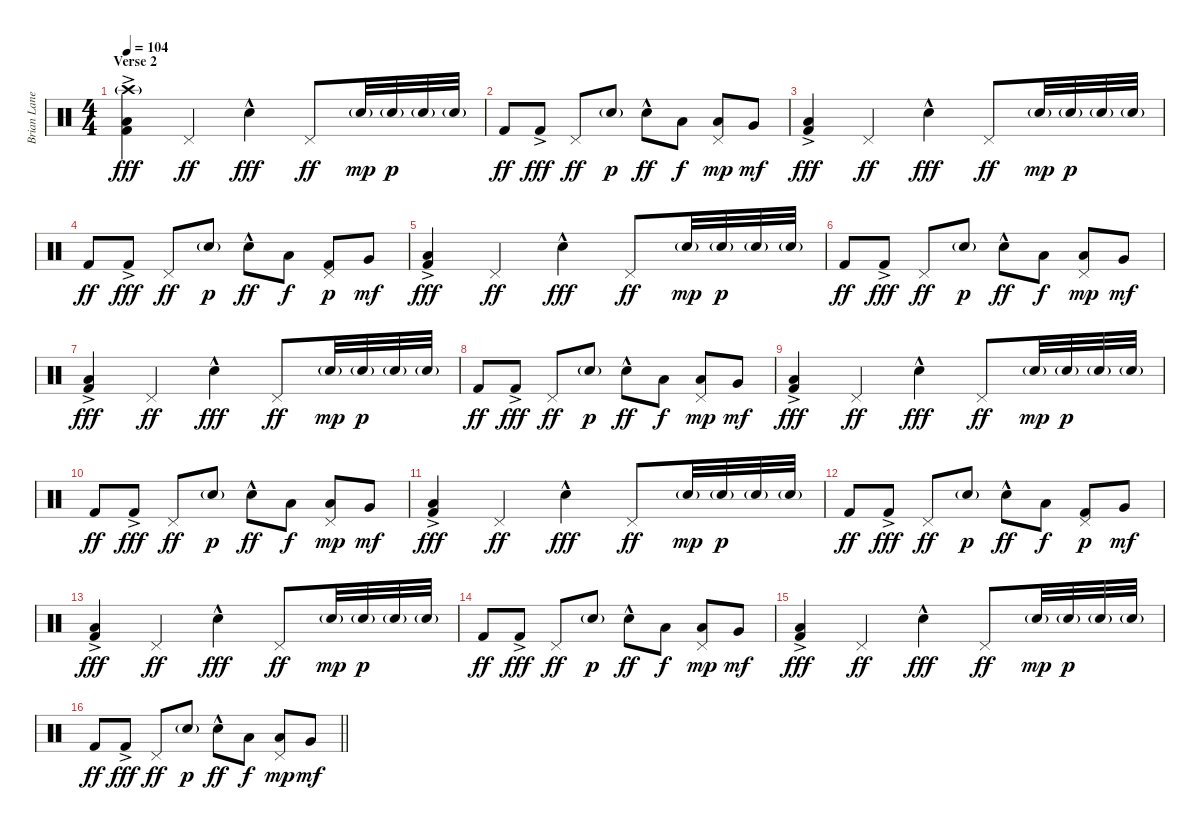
\track ("Brian Lane - Drums" "Brian Lane") {instrument percussion}
\staff {score}
\articulation defaults
\ts (4 4)
\section ("" "Verse 2")
\tempo 104
\clef neutral
\ks c
("Crash high (hit)"{g} "Low Floor Tom (hit)" "Kick (hit) 2"{ac}).4{dy fff} "Pedal Hi-Hat (hit)".4{dy ff} "Snare (hit) 2"{hac}.4{dy fff} "Pedal Hi-Hat (hit)".8{dy ff} "Snare (hit) 2"{g}.32{dy mp} "Snare (hit) 2"{g}.32{dy p} "Snare (hit) 2"{g}.32 "Snare (hit) 2"{g}.32 |
"Kick (hit) 2".8{dy ff} "Kick (hit) 2"{ac}.8{dy fff} "Pedal Hi-Hat (hit)".8{dy ff} "Snare (hit) 2"{g}.8{dy p} "Snare (hit) 2"{hac}.8{dy ff} "Low Tom (hit)".8{dy f} ("Pedal Hi-Hat (hit)" "Low Tom (hit)").8{dy mp} "Very Low Tom (hit)".8{dy mf} |
("Low Floor Tom (hit)" "Kick (hit) 2"{ac}).4{dy fff} "Pedal Hi-Hat (hit)".4{dy ff} "Snare (hit) 2"{hac}.4{dy fff} "Pedal Hi-Hat (hit)".8{dy ff} "Snare (hit) 2"{g}.32{dy mp} "Snare (hit) 2"{g}.32{dy p} "Snare (hit) 2"{g}.32 "Snare (hit) 2"{g}.32 |
"Kick (hit) 2".8{dy ff} "Kick (hit) 2"{ac}.8{dy fff} "Pedal Hi-Hat (hit)".8{dy ff} "Snare (hit) 2"{g}.8{dy p} "Snare (hit) 2"{hac}.8{dy ff} "Low Tom (hit)".8{dy f} ("Pedal Hi-Hat (hit)" "Kick (hit) 2").8{dy p} "Very Low Tom (hit)".8{dy mf} |
("Low Floor Tom (hit)" "Kick (hit) 2"{ac}).4{dy fff} "Pedal Hi-Hat (hit)".4{dy ff} "Snare (hit) 2"{hac}.4{dy fff} "Pedal Hi-Hat (hit)".8{dy ff} "Snare (hit) 2"{g}.32{dy mp} "Snare (hit) 2"{g}.32{dy p} "Snare (hit) 2"{g}.32 "Snare (hit) 2"{g}.32 |
"Kick (hit) 2".8{dy ff} "Kick (hit) 2"{ac}.8{dy fff} "Pedal Hi-Hat (hit)".8{dy ff} "Snare (hit) 2"{g}.8{dy p} "Snare (hit) 2"{hac}.8{dy ff} "Low Tom (hit)".8{dy f} ("Pedal Hi-Hat (hit)" "Low Tom (hit)").8{dy mp} "Very Low Tom (hit)".8{dy mf} |
("Low Floor Tom (hit)" "Kick (hit) 2"{ac}).4{dy fff} "Pedal Hi-Hat (hit)".4{dy ff} "Snare (hit) 2"{hac}.4{dy fff} "Pedal Hi-Hat (hit)".8{dy ff} "Snare (hit) 2"{g}.32{dy mp} "Snare (hit) 2"{g}.32{dy p} "Snare (hit) 2"{g}.32 "Snare (hit) 2"{g}.32 |
"Kick (hit) 2".8{dy ff} "Kick (hit) 2"{ac}.8{dy fff} "Pedal Hi-Hat (hit)".8{dy ff} "Snare (hit) 2"{g}.8{dy p} "Snare (hit) 2"{hac}.8{dy ff} "Low Tom (hit)".8{dy f} ("Pedal Hi-Hat (hit)" "Low Tom (hit)").8{dy mp} "Very Low Tom (hit)".8{dy mf} |
("Low Floor Tom (hit)" "Kick (hit) 2"{ac}).4{dy fff} "Pedal Hi-Hat (hit)".4{dy ff} "Snare (hit) 2"{hac}.4{dy fff} "Pedal Hi-Hat (hit)".8{dy ff} "Snare (hit) 2"{g}.32{dy mp} "Snare (hit) 2"{g}.32{dy p} "Snare (hit) 2"{g}.32 "Snare (hit) 2"{g}.32 |
"Kick (hit) 2".8{dy ff} "Kick (hit) 2"{ac}.8{dy fff} "Pedal Hi-Hat (hit)".8{dy ff} "Snare (hit) 2"{g}.8{dy p} "Snare (hit) 2"{hac}.8{dy ff} "Low Tom (hit)".8{dy f} ("Pedal Hi-Hat (hit)" "Low Tom (hit)").8{dy mp} "Very Low Tom (hit)".8{dy mf} |
("Low Floor Tom (hit)" "Kick (hit) 2"{ac}).4{dy fff} "Pedal Hi-Hat (hit)".4{dy ff} "Snare (hit) 2"{hac}.4{dy fff} "Pedal Hi-Hat (hit)".8{dy ff} "Snare (hit) 2"{g}.32{dy mp} "Snare (hit) 2"{g}.32{dy p} "Snare (hit) 2"{g}.32 "Snare (hit) 2"{g}.32 |
"Kick (hit) 2".8{dy ff} "Kick (hit) 2"{ac}.8{dy fff} "Pedal Hi-Hat (hit)".8{dy ff} "Snare (hit) 2"{g}.8{dy p} "Snare (hit) 2"{hac}.8{dy ff} "Low Tom (hit)".8{dy f} ("Pedal Hi-Hat (hit)" "Kick (hit) 2").8{dy p} "Very Low Tom (hit)".8{dy mf} |
("Low Floor Tom (hit)" "Kick (hit) 2"{ac}).4{dy fff} "Pedal Hi-Hat (hit)".4{dy ff} "Snare (hit) 2"{hac}.4{dy fff} "Pedal Hi-Hat (hit)".8{dy ff} "Snare (hit) 2"{g}.32{dy mp} "Snare (hit) 2"{g}.32{dy p} "Snare (hit) 2"{g}.32 "Snare (hit) 2"{g}.32 |
"Kick (hit) 2".8{dy ff} "Kick (hit) 2"{ac}.8{dy fff} "Pedal Hi-Hat (hit)".8{dy ff} "Snare (hit) 2"{g}.8{dy p} "Snare (hit) 2"{hac}.8{dy ff} "Low Tom (hit)".8{dy f} ("Pedal Hi-Hat (hit)" "Low Tom (hit)").8{dy mp} "Very Low Tom (hit)".8{dy mf} |
("Low Floor Tom (hit)" "Kick (hit) 2"{ac}).4{dy fff} "Pedal Hi-Hat (hit)".4{dy ff} "Snare (hit) 2"{hac}.4{dy fff} "Pedal Hi-Hat (hit)".8{dy ff} "Snare (hit) 2"{g}.32{dy mp} "Snare (hit) 2"{g}.32{dy p} "Snare (hit) 2"{g}.32 "Snare (hit) 2"{g}.32 |
\barLineRight lightlight "Kick (hit) 2".8{dy ff} "Kick (hit) 2"{ac}.8{dy fff} "Pedal Hi-Hat (hit)".8{dy ff} "Snare (hit) 2"{g}.8{dy p} "Snare (hit) 2"{hac}.8{dy ff} "Low Tom (hit)".8{dy f}
("Pedal Hi-Hat (hit)" "Low Tom (hit)").8{dy mp} "Very Low Tom (hit)".8{dy mf}
